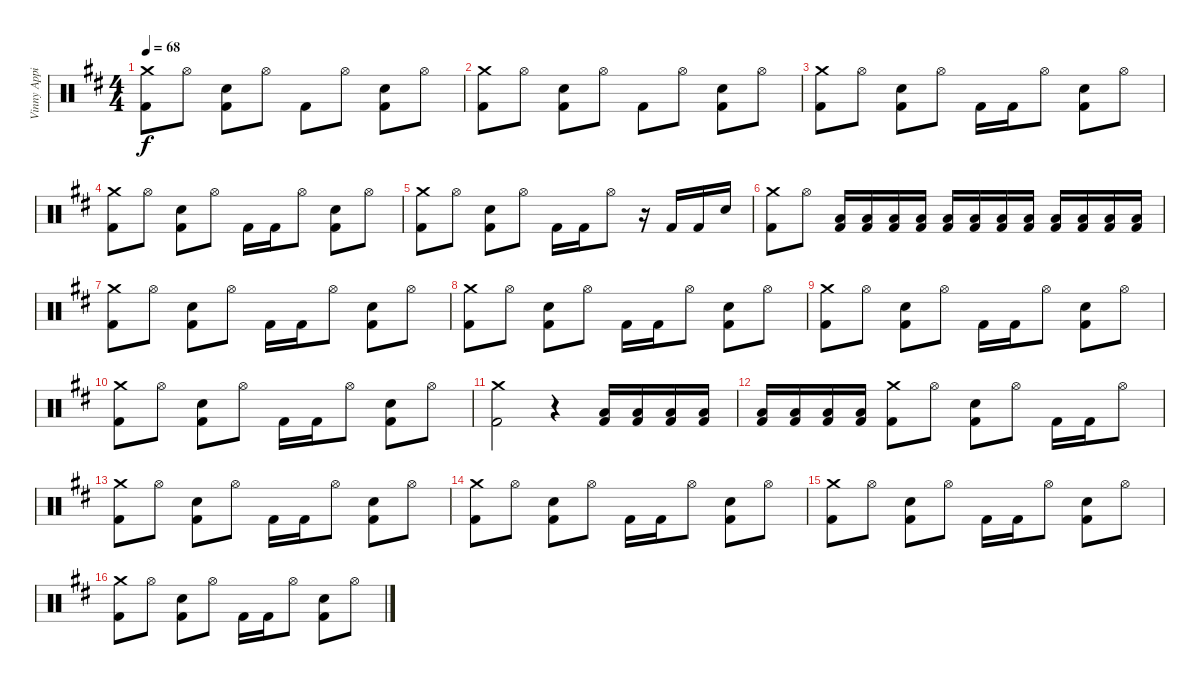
\track ("Vinny Appice" "Vinny Appi") {instrument percussion}
\staff {score}
\articulation defaults
\ts (4 4)
\tempo 68
\clef neutral
\ks d
("Crash medium (hit)" "Kick (hit) 2").8{dy f} "Hi-Hat (open)".8 ("Snare (hit) 2" "Kick (hit) 2").8 "Hi-Hat (open)".8 "Kick (hit) 2".8 "Hi-Hat (open)".8 ("Snare (hit) 2" "Kick (hit) 2").8 "Hi-Hat (open)".8 |
("Crash medium (hit)" "Kick (hit) 2").8 "Hi-Hat (open)".8 ("Snare (hit) 2" "Kick (hit) 2").8 "Hi-Hat (open)".8 "Kick (hit) 2".8 "Hi-Hat (open)".8 ("Snare (hit) 2" "Kick (hit) 2").8 "Hi-Hat (open)".8 |
("Crash medium (hit)" "Kick (hit) 2").8 "Hi-Hat (open)".8 ("Snare (hit) 2" "Kick (hit) 2").8 "Hi-Hat (open)".8 "Kick (hit) 2".16 "Kick (hit) 2".16 "Hi-Hat (open)".8 ("Snare (hit) 2" "Kick (hit) 2").8 "Hi-Hat (open)".8 |
("Crash medium (hit)" "Kick (hit) 2").8 "Hi-Hat (open)".8 ("Snare (hit) 2" "Kick (hit) 2").8 "Hi-Hat (open)".8 "Kick (hit) 2".16 "Kick (hit) 2".16 "Hi-Hat (open)".8 ("Snare (hit) 2" "Kick (hit) 2").8 "Hi-Hat (open)".8 |
("Crash medium (hit)" "Kick (hit) 2").8 "Hi-Hat (open)".8 ("Snare (hit) 2" "Kick (hit) 2").8 "Hi-Hat (open)".8 "Kick (hit) 2".16 "Kick (hit) 2".16 "Hi-Hat (open)".8 r.16 "Kick (hit) 2".16 "Kick (hit) 2".16 "Snare (hit) 2".16 |
("Crash medium (hit)" "Kick (hit) 2").8 "Hi-Hat (open)".8 ("Low Floor Tom (hit)" "Kick (hit) 2").16 ("Low Floor Tom (hit)" "Kick (hit) 2").16 ("Low Floor Tom (hit)" "Kick (hit) 2").16 ("Low Floor Tom (hit)" "Kick (hit) 2").16 ("Low Floor Tom (hit)" "Kick (hit) 2").16 ("Low Floor Tom (hit)" "Kick (hit) 2").16 ("Low Floor Tom (hit)" "Kick (hit) 2").16 ("Low Floor Tom (hit)" "Kick (hit) 2").16 ("Low Floor Tom (hit)" "Kick (hit) 2").16 ("Low Floor Tom (hit)" "Kick (hit) 2").16 ("Low Floor Tom (hit)" "Kick (hit) 2").16 ("Low Floor Tom (hit)" "Kick (hit) 2").16 |
("Crash medium (hit)" "Kick (hit) 2").8 "Hi-Hat (open)".8 ("Snare (hit) 2" "Kick (hit) 2").8 "Hi-Hat (open)".8 "Kick (hit) 2".16 "Kick (hit) 2".16 "Hi-Hat (open)".8 ("Snare (hit) 2" "Kick (hit) 2").8 "Hi-Hat (open)".8 |
("Crash medium (hit)" "Kick (hit) 2").8 "Hi-Hat (open)".8 ("Snare (hit) 2" "Kick (hit) 2").8 "Hi-Hat (open)".8 "Kick (hit) 2".16 "Kick (hit) 2".16 "Hi-Hat (open)".8 ("Snare (hit) 2" "Kick (hit) 2").8 "Hi-Hat (open)".8 |
("Crash medium (hit)" "Kick (hit) 2").8 "Hi-Hat (open)".8 ("Snare (hit) 2" "Kick (hit) 2").8 "Hi-Hat (open)".8 "Kick (hit) 2".16 "Kick (hit) 2".16 "Hi-Hat (open)".8 ("Snare (hit) 2" "Kick (hit) 2").8 "Hi-Hat (open)".8 |
("Crash medium (hit)" "Kick (hit) 2").8 "Hi-Hat (open)".8 ("Snare (hit) 2" "Kick (hit) 2").8 "Hi-Hat (open)".8 "Kick (hit) 2".16 "Kick (hit) 2".16 "Hi-Hat (open)".8 ("Snare (hit) 2" "Kick (hit) 2").8 "Hi-Hat (open)".8 |
("Crash medium (hit)" "Kick (hit) 2").2 r.4 ("Low Floor Tom (hit)" "Kick (hit) 2").16 ("Low Floor Tom (hit)" "Kick (hit) 2").16 ("Low Floor Tom (hit)" "Kick (hit) 2").16 ("Low Floor Tom (hit)" "Kick (hit) 2").16 |
("Low Floor Tom (hit)" "Kick (hit) 2").16 ("Low Floor Tom (hit)" "Kick (hit) 2").16 ("Low Floor Tom (hit)" "Kick (hit) 2").16 ("Low Floor Tom (hit)" "Kick (hit) 2").16 ("Crash medium (hit)" "Kick (hit) 2").8 "Hi-Hat (open)".8 ("Snare (hit) 2" "Kick (hit) 2").8 "Hi-Hat (open)".8 "Kick (hit) 2".16 "Kick (hit) 2".16 "Hi-Hat (open)".8 |
("Crash medium (hit)" "Kick (hit) 2").8 "Hi-Hat (open)".8 ("Snare (hit) 2" "Kick (hit) 2").8 "Hi-Hat (open)".8 "Kick (hit) 2".16 "Kick (hit) 2".16 "Hi-Hat (open)".8 ("Snare (hit) 2" "Kick (hit) 2").8 "Hi-Hat (open)".8 |
("Crash medium (hit)" "Kick (hit) 2").8 "Hi-Hat (open)".8 ("Snare (hit) 2" "Kick (hit) 2").8 "Hi-Hat (open)".8 "Kick (hit) 2".16 "Kick (hit) 2".16 "Hi-Hat (open)".8 ("Snare (hit) 2" "Kick (hit) 2").8 "Hi-Hat (open)".8 |
("Crash medium (hit)" "Kick (hit) 2").8 "Hi-Hat (open)".8 ("Snare (hit) 2" "Kick (hit) 2").8 "Hi-Hat (open)".8 "Kick (hit) 2".16 "Kick (hit) 2".16 "Hi-Hat (open)".8 ("Snare (hit) 2" "Kick (hit) 2").8 "Hi-Hat (open)".8 |
("Crash medium (hit)" "Kick (hit) 2").8 "Hi-Hat (open)".8 ("Snare (hit) 2" "Kick (hit) 2").8 "Hi-Hat (open)".8 "Kick (hit) 2".16 "Kick (hit) 2".16 "Hi-Hat (open)".8 ("Snare (hit) 2" "Kick (hit) 2").8 "Hi-Hat (open)".8
